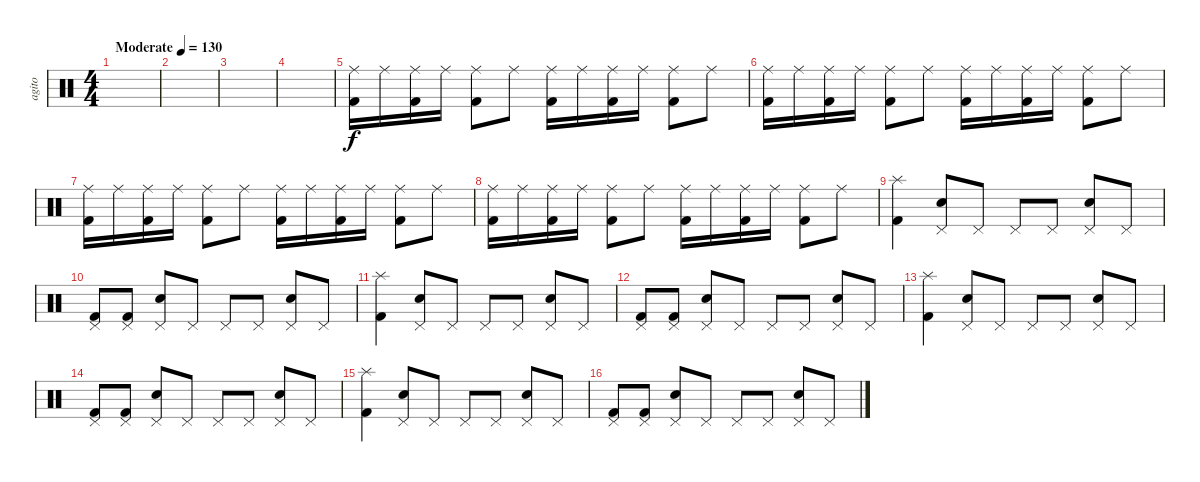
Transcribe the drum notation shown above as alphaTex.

\track ("agito" "agito") {instrument percussion}
\staff {score}
\articulation defaults
\ts (4 4)
\tempo (130 "Moderate")
\clef neutral
\ks c
|
|
|
|
("Ride (middle)" "Kick (hit) 2").16 "Ride (middle)".16 ("Ride (middle)" "Kick (hit) 2").16 "Ride (middle)".16 ("Ride (middle)" "Kick (hit) 2").8 "Ride (middle)".8 ("Ride (middle)" "Kick (hit) 2").16 "Ride (middle)".16 ("Ride (middle)" "Kick (hit) 2").16 "Ride (middle)".16 ("Ride (middle)" "Kick (hit) 2").8 "Ride (middle)".8 |
("Ride (middle)" "Kick (hit) 2").16 "Ride (middle)".16 ("Ride (middle)" "Kick (hit) 2").16 "Ride (middle)".16 ("Ride (middle)" "Kick (hit) 2").8 "Ride (middle)".8 ("Ride (middle)" "Kick (hit) 2").16 "Ride (middle)".16 ("Ride (middle)" "Kick (hit) 2").16 "Ride (middle)".16 ("Ride (middle)" "Kick (hit) 2").8 "Ride (middle)".8 |
("Ride (middle)" "Kick (hit) 2").16 "Ride (middle)".16 ("Ride (middle)" "Kick (hit) 2").16 "Ride (middle)".16 ("Ride (middle)" "Kick (hit) 2").8 "Ride (middle)".8 ("Ride (middle)" "Kick (hit) 2").16 "Ride (middle)".16 ("Ride (middle)" "Kick (hit) 2").16 "Ride (middle)".16 ("Ride (middle)" "Kick (hit) 2").8 "Ride (middle)".8 |
("Ride (middle)" "Kick (hit) 2").16 "Ride (middle)".16 ("Ride (middle)" "Kick (hit) 2").16 "Ride (middle)".16 ("Ride (middle)" "Kick (hit) 2").8 "Ride (middle)".8 ("Ride (middle)" "Kick (hit) 2").16 "Ride (middle)".16 ("Ride (middle)" "Kick (hit) 2").16 "Ride (middle)".16 ("Ride (middle)" "Kick (hit) 2").8 "Ride (middle)".8 |
("Splash (hit)" "Kick (hit) 2").4 ("Pedal Hi-Hat (hit)" "Electric Snare (hit)").8 "Pedal Hi-Hat (hit)".8 "Pedal Hi-Hat (hit)".8 "Pedal Hi-Hat (hit)".8 ("Pedal Hi-Hat (hit)" "Electric Snare (hit)").8 "Pedal Hi-Hat (hit)".8 |
("Pedal Hi-Hat (hit)" "Kick (hit) 2").8 ("Pedal Hi-Hat (hit)" "Kick (hit) 2").8 ("Pedal Hi-Hat (hit)" "Electric Snare (hit)").8 "Pedal Hi-Hat (hit)".8 "Pedal Hi-Hat (hit)".8 "Pedal Hi-Hat (hit)".8 ("Pedal Hi-Hat (hit)" "Electric Snare (hit)").8 "Pedal Hi-Hat (hit)".8 |
("Splash (hit)" "Kick (hit) 2").4 ("Pedal Hi-Hat (hit)" "Electric Snare (hit)").8 "Pedal Hi-Hat (hit)".8 "Pedal Hi-Hat (hit)".8 "Pedal Hi-Hat (hit)".8 ("Pedal Hi-Hat (hit)" "Electric Snare (hit)").8 "Pedal Hi-Hat (hit)".8 |
("Pedal Hi-Hat (hit)" "Kick (hit) 2").8 ("Pedal Hi-Hat (hit)" "Kick (hit) 2").8 ("Pedal Hi-Hat (hit)" "Electric Snare (hit)").8 "Pedal Hi-Hat (hit)".8 "Pedal Hi-Hat (hit)".8 "Pedal Hi-Hat (hit)".8 ("Pedal Hi-Hat (hit)" "Electric Snare (hit)").8 "Pedal Hi-Hat (hit)".8 |
("Splash (hit)" "Kick (hit) 2").4 ("Pedal Hi-Hat (hit)" "Electric Snare (hit)").8 "Pedal Hi-Hat (hit)".8 "Pedal Hi-Hat (hit)".8 "Pedal Hi-Hat (hit)".8 ("Pedal Hi-Hat (hit)" "Electric Snare (hit)").8 "Pedal Hi-Hat (hit)".8 |
("Pedal Hi-Hat (hit)" "Kick (hit) 2").8 ("Pedal Hi-Hat (hit)" "Kick (hit) 2").8 ("Pedal Hi-Hat (hit)" "Electric Snare (hit)").8 "Pedal Hi-Hat (hit)".8 "Pedal Hi-Hat (hit)".8 "Pedal Hi-Hat (hit)".8 ("Pedal Hi-Hat (hit)" "Electric Snare (hit)").8 "Pedal Hi-Hat (hit)".8 |
("Splash (hit)" "Kick (hit) 2").4 ("Pedal Hi-Hat (hit)" "Electric Snare (hit)").8 "Pedal Hi-Hat (hit)".8 "Pedal Hi-Hat (hit)".8 "Pedal Hi-Hat (hit)".8 ("Pedal Hi-Hat (hit)" "Electric Snare (hit)").8 "Pedal Hi-Hat (hit)".8 |
("Pedal Hi-Hat (hit)" "Kick (hit) 2").8 ("Pedal Hi-Hat (hit)" "Kick (hit) 2").8 ("Pedal Hi-Hat (hit)" "Electric Snare (hit)").8 "Pedal Hi-Hat (hit)".8 "Pedal Hi-Hat (hit)".8 "Pedal Hi-Hat (hit)".8 ("Pedal Hi-Hat (hit)" "Electric Snare (hit)").8 "Pedal Hi-Hat (hit)".8
